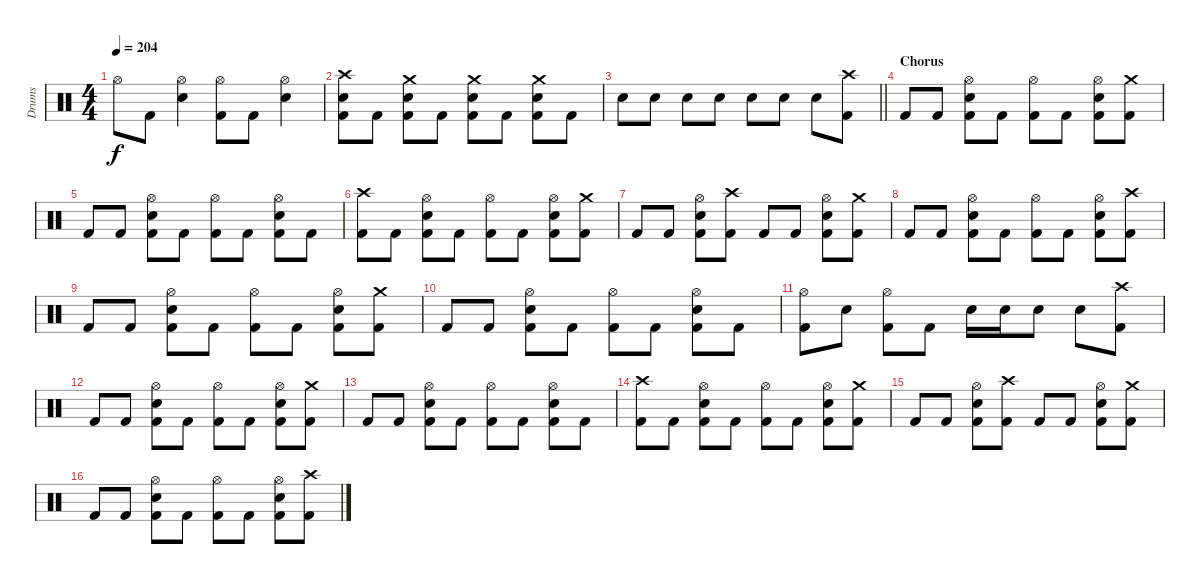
\track ("Drums" "Drums") {instrument percussion}
\staff {score}
\articulation defaults
\ts (4 4)
\tempo 204
\clef neutral
\ks c "Hi-Hat (open)".8{dy f} "Kick (hit) 2".8
("Hi-Hat (open)" "Snare (hit) 2").4 ("Hi-Hat (open)" "Kick (hit) 2").8 "Kick (hit) 2".8 ("Hi-Hat (open)" "Snare (hit) 2").4 |
("Crash high (hit)" "Snare (hit) 2" "Kick (hit) 2").8 "Kick (hit) 2".8 ("Crash medium (hit)" "Snare (hit) 2" "Kick (hit) 2").8 "Kick (hit) 2".8 ("Crash medium (hit)" "Snare (hit) 2" "Kick (hit) 2").8 "Kick (hit) 2".8 ("Crash medium (hit)" "Snare (hit) 2" "Kick (hit) 2").8 "Kick (hit) 2".8 |
\barLineRight lightlight "Snare (hit) 2".8 "Snare (hit) 2".8 "Snare (hit) 2".8 "Snare (hit) 2".8 "Snare (hit) 2".8 "Snare (hit) 2".8 "Snare (hit) 2".8
("Crash high (hit)" "Kick (hit) 2").8 |
\section ("" "Chorus")
"Kick (hit) 2".8 "Kick (hit) 2".8 ("Hi-Hat (open)" "Snare (hit) 2" "Kick (hit) 2").8 "Kick (hit) 2".8 ("Hi-Hat (open)" "Kick (hit) 2").8 "Kick (hit) 2".8 ("Hi-Hat (open)" "Snare (hit) 2" "Kick (hit) 2").8 ("Crash medium (hit)" "Kick (hit) 2").8 |
"Kick (hit) 2".8 "Kick (hit) 2".8 ("Hi-Hat (open)" "Snare (hit) 2" "Kick (hit) 2").8 "Kick (hit) 2".8 ("Hi-Hat (open)" "Kick (hit) 2").8 "Kick (hit) 2".8 ("Hi-Hat (open)" "Snare (hit) 2" "Kick (hit) 2").8 "Kick (hit) 2".8 |
("Crash high (hit)" "Kick (hit) 2").8 "Kick (hit) 2".8 ("Hi-Hat (open)" "Snare (hit) 2" "Kick (hit) 2").8 "Kick (hit) 2".8 ("Hi-Hat (open)" "Kick (hit) 2").8 "Kick (hit) 2".8 ("Hi-Hat (open)" "Snare (hit) 2" "Kick (hit) 2").8 ("Crash medium (hit)" "Kick (hit) 2").8 |
"Kick (hit) 2".8 "Kick (hit) 2".8 ("Hi-Hat (open)" "Snare (hit) 2" "Kick (hit) 2").8 ("Crash high (hit)" "Kick (hit) 2").8 "Kick (hit) 2".8 "Kick (hit) 2".8 ("Hi-Hat (open)" "Snare (hit) 2" "Kick (hit) 2").8 ("Crash medium (hit)" "Kick (hit) 2").8 |
"Kick (hit) 2".8 "Kick (hit) 2".8 ("Hi-Hat (open)" "Snare (hit) 2" "Kick (hit) 2").8 "Kick (hit) 2".8 ("Hi-Hat (open)" "Kick (hit) 2").8 "Kick (hit) 2".8 ("Hi-Hat (open)" "Snare (hit) 2" "Kick (hit) 2").8 ("Crash high (hit)" "Kick (hit) 2").8 |
"Kick (hit) 2".8 "Kick (hit) 2".8 ("Hi-Hat (open)" "Snare (hit) 2" "Kick (hit) 2").8 "Kick (hit) 2".8 ("Hi-Hat (open)" "Kick (hit) 2").8 "Kick (hit) 2".8 ("Hi-Hat (open)" "Snare (hit) 2" "Kick (hit) 2").8 ("Crash medium (hit)" "Kick (hit) 2").8 |
"Kick (hit) 2".8 "Kick (hit) 2".8 ("Hi-Hat (open)" "Snare (hit) 2" "Kick (hit) 2").8 "Kick (hit) 2".8 ("Hi-Hat (open)" "Kick (hit) 2").8 "Kick (hit) 2".8 ("Hi-Hat (open)" "Snare (hit) 2" "Kick (hit) 2").8 "Kick (hit) 2".8 |
("Hi-Hat (open)" "Kick (hit) 2").8 "Snare (hit) 2".8 ("Hi-Hat (open)" "Kick (hit) 2").8 "Kick (hit) 2".8 "Snare (hit) 2".16 "Snare (hit) 2".16 "Snare (hit) 2".8 "Snare (hit) 2".8 ("Crash high (hit)" "Kick (hit) 2").8 |
"Kick (hit) 2".8 "Kick (hit) 2".8 ("Hi-Hat (open)" "Snare (hit) 2" "Kick (hit) 2").8 "Kick (hit) 2".8 ("Hi-Hat (open)" "Kick (hit) 2").8 "Kick (hit) 2".8 ("Hi-Hat (open)" "Snare (hit) 2" "Kick (hit) 2").8 ("Crash medium (hit)" "Kick (hit) 2").8 |
"Kick (hit) 2".8 "Kick (hit) 2".8 ("Hi-Hat (open)" "Snare (hit) 2" "Kick (hit) 2").8 "Kick (hit) 2".8 ("Hi-Hat (open)" "Kick (hit) 2").8 "Kick (hit) 2".8 ("Hi-Hat (open)" "Snare (hit) 2" "Kick (hit) 2").8 "Kick (hit) 2".8 |
("Crash high (hit)" "Kick (hit) 2").8 "Kick (hit) 2".8 ("Hi-Hat (open)" "Snare (hit) 2" "Kick (hit) 2").8 "Kick (hit) 2".8 ("Hi-Hat (open)" "Kick (hit) 2").8 "Kick (hit) 2".8 ("Hi-Hat (open)" "Snare (hit) 2" "Kick (hit) 2").8 ("Crash medium (hit)" "Kick (hit) 2").8 |
"Kick (hit) 2".8 "Kick (hit) 2".8 ("Hi-Hat (open)" "Snare (hit) 2" "Kick (hit) 2").8 ("Crash high (hit)" "Kick (hit) 2").8 "Kick (hit) 2".8 "Kick (hit) 2".8 ("Hi-Hat (open)" "Snare (hit) 2" "Kick (hit) 2").8 ("Crash medium (hit)" "Kick (hit) 2").8 |
"Kick (hit) 2".8 "Kick (hit) 2".8 ("Hi-Hat (open)" "Snare (hit) 2" "Kick (hit) 2").8 "Kick (hit) 2".8 ("Hi-Hat (open)" "Kick (hit) 2").8 "Kick (hit) 2".8 ("Hi-Hat (open)" "Snare (hit) 2" "Kick (hit) 2").8 ("Crash high (hit)" "Kick (hit) 2").8
